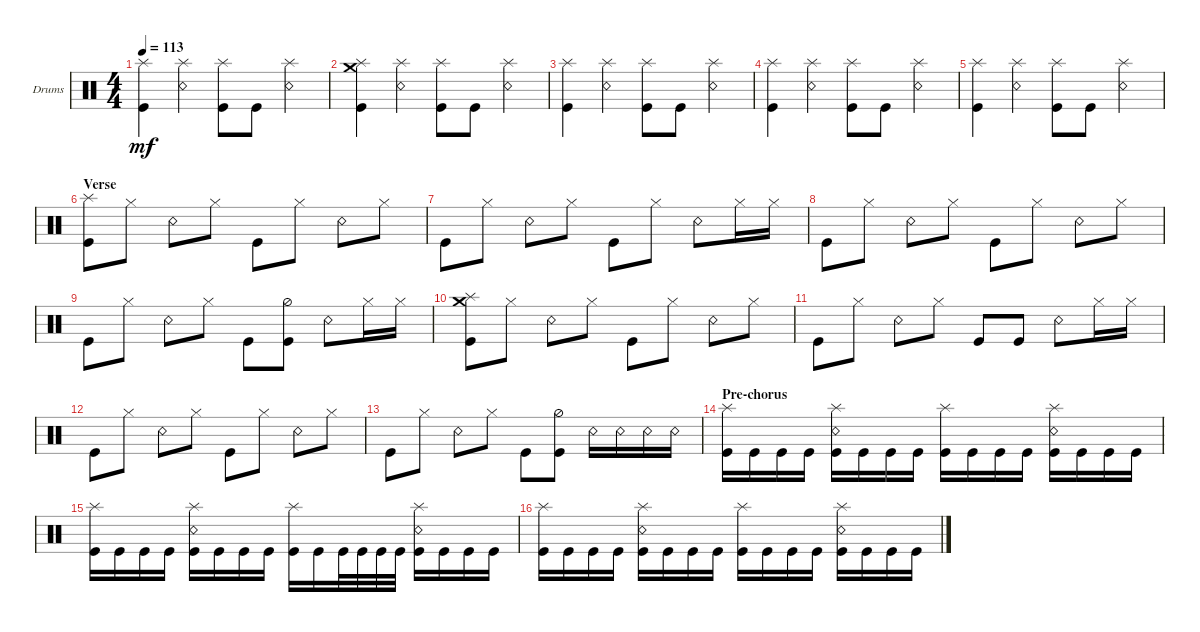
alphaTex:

\defaultSystemsLayout 4
\bracketExtendMode groupsimilarinstruments
\firstSystemTrackNameOrientation horizontal
\otherSystemsTrackNameOrientation horizontal
\track ("Drums" "Drums") {instrument percussion}
\staff {score}
\articulation defaults
\ts (4 4)
\tempo 113
\clef neutral
\ks c
("Splash (hit)" "Kick (hit)").4{dy mf} ("Splash (hit)" "Snare (rim shot)").4 ("Splash (hit)" "Kick (hit)").8 "Kick (hit)".8 ("Splash (hit)" "Snare (rim shot)").4 |
("Splash (hit)" "Kick (hit)" "Crash medium (hit)").4 ("Splash (hit)" "Snare (rim shot)").4 ("Splash (hit)" "Kick (hit)").8 "Kick (hit)".8 ("Splash (hit)" "Snare (rim shot)").4 |
("Splash (hit)" "Kick (hit)").4 ("Splash (hit)" "Snare (rim shot)").4 ("Splash (hit)" "Kick (hit)").8 "Kick (hit)".8 ("Splash (hit)" "Snare (rim shot)").4 |
("Splash (hit)" "Kick (hit)").4 ("Splash (hit)" "Snare (rim shot)").4 ("Splash (hit)" "Kick (hit)").8 "Kick (hit)".8 ("Splash (hit)" "Snare (rim shot)").4 |
("Splash (hit)" "Kick (hit)").4 ("Splash (hit)" "Snare (rim shot)").4 ("Splash (hit)" "Kick (hit)").8 "Kick (hit)".8 ("Splash (hit)" "Snare (rim shot)").4 |
\section ("" "Verse")
("Kick (hit)" "Splash (hit)").8 "Hi-Hat (closed)".8 "Snare (rim shot)".8 "Hi-Hat (closed)".8 "Kick (hit)".8 "Hi-Hat (closed)".8 "Snare (rim shot)".8 "Hi-Hat (closed)".8 |
"Kick (hit)".8 "Hi-Hat (closed)".8 "Snare (rim shot)".8 "Hi-Hat (closed)".8 "Kick (hit)".8 "Hi-Hat (closed)".8 "Snare (rim shot)".8 "Hi-Hat (closed)".16 "Hi-Hat (closed)".16 |
"Kick (hit)".8 "Hi-Hat (closed)".8 "Snare (rim shot)".8 "Hi-Hat (closed)".8 "Kick (hit)".8 "Hi-Hat (closed)".8 "Snare (rim shot)".8 "Hi-Hat (closed)".8 |
"Kick (hit)".8 "Hi-Hat (closed)".8 "Snare (rim shot)".8 "Hi-Hat (closed)".8 "Kick (hit)".8 ("Kick (hit)" "Hi-Hat (half)").8 "Snare (rim shot)".8 "Hi-Hat (closed)".16 "Hi-Hat (closed)".16 |
("Kick (hit)" "Splash (hit)" "Crash medium (hit)").8 "Hi-Hat (closed)".8 "Snare (rim shot)".8 "Hi-Hat (closed)".8 "Kick (hit)".8 "Hi-Hat (closed)".8 "Snare (rim shot)".8 "Hi-Hat (closed)".8 |
"Kick (hit)".8 "Hi-Hat (closed)".8 "Snare (rim shot)".8 "Hi-Hat (closed)".8 "Kick (hit)".8 "Kick (hit)".8 "Snare (rim shot)".8 "Hi-Hat (closed)".16 "Hi-Hat (closed)".16 |
"Kick (hit)".8 "Hi-Hat (closed)".8 "Snare (rim shot)".8 "Hi-Hat (closed)".8 "Kick (hit)".8 "Hi-Hat (closed)".8 "Snare (rim shot)".8 "Hi-Hat (closed)".8 |
"Kick (hit)".8 "Hi-Hat (closed)".8 "Snare (rim shot)".8 "Hi-Hat (closed)".8 "Kick (hit)".8 ("Kick (hit)" "Hi-Hat (half)").8 "Snare (rim shot)".16 "Snare (rim shot)".16 "Snare (rim shot)".16 "Snare (rim shot)".16 |
\section ("" "Pre-chorus")
("Kick (hit)" "Splash (hit)").16 "Kick (hit)".16 "Kick (hit)".16 "Kick (hit)".16 ("Kick (hit)" "Snare (rim shot)" "Splash (hit)").16 "Kick (hit)".16 "Kick (hit)".16 "Kick (hit)".16 ("Kick (hit)" "Splash (hit)").16 "Kick (hit)".16 "Kick (hit)".16 "Kick (hit)".16 ("Kick (hit)" "Snare (rim shot)" "Splash (hit)").16 "Kick (hit)".16 "Kick (hit)".16 "Kick (hit)".16 |
("Kick (hit)" "Splash (hit)").16 "Kick (hit)".16 "Kick (hit)".16 "Kick (hit)".16 ("Kick (hit)" "Snare (rim shot)" "Splash (hit)").16 "Kick (hit)".16 "Kick (hit)".16 "Kick (hit)".16 ("Kick (hit)" "Splash (hit)").16 "Kick (hit)".16 "Kick (hit)".32 "Kick (hit)".32 "Kick (hit)".32 "Kick (hit)".32 ("Kick (hit)" "Snare (rim shot)" "Splash (hit)").16 "Kick (hit)".16 "Kick (hit)".16 "Kick (hit)".16 |
("Kick (hit)" "Splash (hit)").16 "Kick (hit)".16 "Kick (hit)".16 "Kick (hit)".16 ("Kick (hit)" "Snare (rim shot)" "Splash (hit)").16 "Kick (hit)".16 "Kick (hit)".16 "Kick (hit)".16 ("Kick (hit)" "Splash (hit)").16 "Kick (hit)".16 "Kick (hit)".16 "Kick (hit)".16 ("Kick (hit)" "Snare (rim shot)" "Splash (hit)").16 "Kick (hit)".16 "Kick (hit)".16 "Kick (hit)".16
